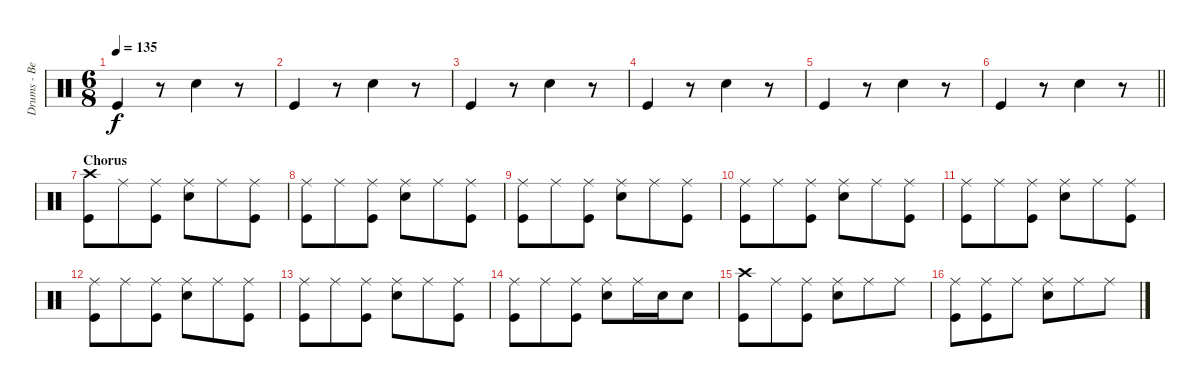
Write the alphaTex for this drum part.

\track ("Drums - Ben Johnston" "Drums - Be") {instrument percussion}
\staff {score}
\articulation defaults
\ts (6 8)
\tempo 135
\clef neutral
\ks c "Kick (hit)".4{dy f}
r.8 "Snare (hit) 2".4 r.8 |
"Kick (hit)".4 r.8 "Snare (hit) 2".4 r.8 |
"Kick (hit)".4 r.8 "Snare (hit) 2".4 r.8 |
"Kick (hit)".4 r.8 "Snare (hit) 2".4 r.8 |
"Kick (hit)".4 r.8 "Snare (hit) 2".4 r.8 |
\barLineRight lightlight "Kick (hit)".4
r.8 "Snare (hit) 2".4 r.8 |
\section ("" "Chorus")
("Crash high (hit)" "Kick (hit)").8 "Ride (middle)".8 ("Ride (middle)" "Kick (hit)").8 ("Ride (middle)" "Snare (hit) 2").8 "Ride (middle)".8 ("Ride (middle)" "Kick (hit)").8 |
("Ride (middle)" "Kick (hit)").8 "Ride (middle)".8 ("Ride (middle)" "Kick (hit)").8 ("Ride (middle)" "Snare (hit) 2").8 "Ride (middle)".8 ("Ride (middle)" "Kick (hit)").8 |
("Ride (middle)" "Kick (hit)").8 "Ride (middle)".8 ("Ride (middle)" "Kick (hit)").8 ("Ride (middle)" "Snare (hit) 2").8 "Ride (middle)".8 ("Ride (middle)" "Kick (hit)").8 |
("Ride (middle)" "Kick (hit)").8 "Ride (middle)".8 ("Ride (middle)" "Kick (hit)").8 ("Ride (middle)" "Snare (hit) 2").8 "Ride (middle)".8 ("Ride (middle)" "Kick (hit)").8 |
("Ride (middle)" "Kick (hit)").8 "Ride (middle)".8 ("Ride (middle)" "Kick (hit)").8 ("Ride (middle)" "Snare (hit) 2").8 "Ride (middle)".8 ("Ride (middle)" "Kick (hit)").8 |
("Ride (middle)" "Kick (hit)").8 "Ride (middle)".8 ("Ride (middle)" "Kick (hit)").8 ("Ride (middle)" "Snare (hit) 2").8 "Ride (middle)".8 ("Ride (middle)" "Kick (hit)").8 |
("Ride (middle)" "Kick (hit)").8 "Ride (middle)".8 ("Ride (middle)" "Kick (hit)").8 ("Ride (middle)" "Snare (hit) 2").8 "Ride (middle)".8 ("Ride (middle)" "Kick (hit)").8 |
("Ride (middle)" "Kick (hit)").8 "Ride (middle)".8 ("Ride (middle)" "Kick (hit)").8 ("Ride (middle)" "Snare (hit) 2").8 "Ride (middle)".16 "Snare (hit) 2".16 "Snare (hit) 2".8 |
("Crash high (hit)" "Kick (hit)").8 "Ride (middle)".8 ("Ride (middle)" "Kick (hit)").8 ("Ride (middle)" "Snare (hit) 2").8 "Ride (middle)".8 "Ride (middle)".8 |
("Ride (middle)" "Kick (hit)").8 ("Ride (middle)" "Kick (hit)").8 "Ride (middle)".8 ("Ride (middle)" "Snare (hit) 2").8 "Ride (middle)".8 "Ride (middle)".8
